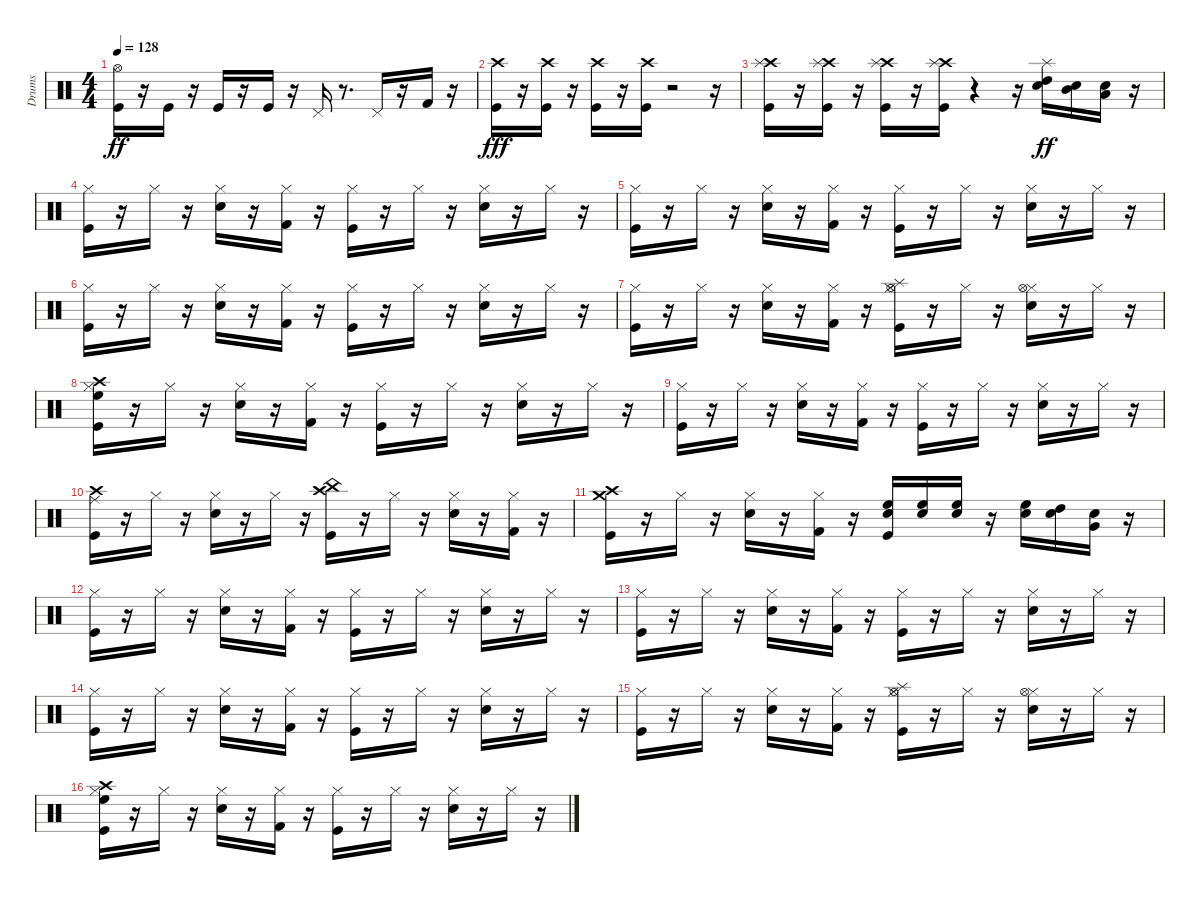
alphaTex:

\track ("Drums" "Drums") {instrument percussion}
\staff {score}
\articulation defaults
\ts (4 4)
\tempo 128
\clef neutral
\ks c
("Kick (hit)" "Hi-Hat (open)").16{dy ff} r.16 "Kick (hit)".16 r.16 "Kick (hit)".16 r.16 "Kick (hit)".16 r.16 "Pedal Hi-Hat (hit)".16 r.8{d} "Pedal Hi-Hat (hit)".16 r.16 "Kick (hit) 2".16 r.16 |
("Kick (hit)" "Crash high (hit)").16{dy fff} r.16 ("Kick (hit)" "Crash high (hit)").16 r.16 ("Kick (hit)" "Crash high (hit)").16 r.16 ("Kick (hit)" "Crash high (hit)").16 r.2 r.16 |
("Kick (hit)" "Crash high (hit)" "Splash (hit)").16 r.16 ("Kick (hit)" "Crash high (hit)" "Splash (hit)").16 r.16 ("Kick (hit)" "Crash high (hit)" "Splash (hit)").16 r.16 ("Kick (hit)" "Crash high (hit)" "Splash (hit)").16 r.4 r.16 ("Snare (hit) 2" "High Tom (hit)" "Splash (hit)").16{dy ff} ("Snare (hit) 2" "Mid Tom (hit)").16 ("Snare (hit) 2" "Low Tom (hit)").16 r.16 |
("Kick (hit)" "Hi-Hat (closed)").16 r.16 "Hi-Hat (closed)".16 r.16 ("Snare (hit) 2" "Hi-Hat (closed)").16 r.16 ("Kick (hit) 2" "Hi-Hat (closed)").16 r.16 ("Kick (hit)" "Hi-Hat (closed)").16 r.16 "Hi-Hat (closed)".16 r.16 ("Snare (hit) 2" "Hi-Hat (closed)").16 r.16 "Hi-Hat (closed)".16 r.16 |
("Kick (hit)" "Hi-Hat (closed)").16 r.16 "Hi-Hat (closed)".16 r.16 ("Snare (hit) 2" "Hi-Hat (closed)").16 r.16 ("Kick (hit) 2" "Hi-Hat (closed)").16 r.16 ("Kick (hit)" "Hi-Hat (closed)").16 r.16 "Hi-Hat (closed)".16 r.16 ("Snare (hit) 2" "Hi-Hat (closed)").16 r.16 "Hi-Hat (closed)".16 r.16 |
("Kick (hit)" "Hi-Hat (closed)").16 r.16 "Hi-Hat (closed)".16 r.16 ("Snare (hit) 2" "Hi-Hat (closed)").16 r.16 ("Kick (hit) 2" "Hi-Hat (closed)").16 r.16 ("Kick (hit)" "Hi-Hat (closed)").16 r.16 "Hi-Hat (closed)".16 r.16 ("Snare (hit) 2" "Hi-Hat (closed)").16 r.16 "Hi-Hat (closed)".16 r.16 |
("Kick (hit)" "Hi-Hat (closed)").16 r.16 "Hi-Hat (closed)".16 r.16 ("Snare (hit) 2" "Hi-Hat (closed)").16 r.16 ("Kick (hit) 2" "Hi-Hat (closed)").16 r.16 ("Kick (hit)" "Hi-Hat (closed)" "Hi-Hat (open)" "Splash (hit)").16 r.16 "Hi-Hat (closed)".16 r.16 ("Snare (hit) 2" "Hi-Hat (closed)" "Hi-Hat (open)").16 r.16 "Hi-Hat (closed)".16 r.16 |
("Kick (hit)" "Hi-Hat (closed)" "Crash high (hit)" "High Floor Tom (hit)").16 r.16 "Hi-Hat (closed)".16 r.16 ("Snare (hit) 2" "Hi-Hat (closed)").16 r.16 ("Kick (hit) 2" "Hi-Hat (closed)").16 r.16 ("Kick (hit)" "Hi-Hat (closed)").16 r.16 "Hi-Hat (closed)".16 r.16 ("Snare (hit) 2" "Hi-Hat (closed)").16 r.16 "Hi-Hat (closed)".16 r.16 |
("Kick (hit)" "Hi-Hat (closed)").16 r.16 "Hi-Hat (closed)".16 r.16 ("Snare (hit) 2" "Hi-Hat (closed)").16 r.16 ("Kick (hit) 2" "Hi-Hat (closed)").16 r.16 ("Kick (hit)" "Hi-Hat (closed)").16 r.16 "Hi-Hat (closed)".16 r.16 ("Snare (hit) 2" "Hi-Hat (closed)").16 r.16 "Hi-Hat (closed)".16 r.16 |
("Kick (hit)" "Crash high (hit)" "Ride (middle)").16 r.16 "Hi-Hat (closed)".16 r.16 ("Snare (hit) 2" "Hi-Hat (closed)").16 r.16 "Hi-Hat (closed)".16 r.16 ("Kick (hit)" "Crash high (hit)" "China (hit)").16 r.16 "Hi-Hat (closed)".16 r.16 ("Snare (hit) 2" "Hi-Hat (closed)").16 r.16 ("Kick (hit) 2" "Hi-Hat (closed)").16 r.16 |
("Kick (hit)" "Crash high (hit)" "Crash medium (hit)").16 r.16 "Hi-Hat (closed)".16 r.16 ("Snare (hit) 2" "Hi-Hat (closed)").16 r.16 ("Kick (hit) 2" "Hi-Hat (closed)").16 r.16 ("Kick (hit)" "Electric Snare (hit)" "High Floor Tom (hit)").16 ("Electric Snare (hit)" "High Floor Tom (hit)").16 ("Electric Snare (hit)" "High Floor Tom (hit)").16 r.16 ("Snare (hit) 2" "High Floor Tom (hit)").16 ("Snare (hit) 2" "High Tom (hit)").16 ("Snare (hit) 2" "Very Low Tom (hit)").16 r.16 |
("Kick (hit)" "Hi-Hat (closed)").16 r.16 "Hi-Hat (closed)".16 r.16 ("Snare (hit) 2" "Hi-Hat (closed)").16 r.16 ("Kick (hit) 2" "Hi-Hat (closed)").16 r.16 ("Kick (hit)" "Hi-Hat (closed)").16 r.16 "Hi-Hat (closed)".16 r.16 ("Snare (hit) 2" "Hi-Hat (closed)").16 r.16 "Hi-Hat (closed)".16 r.16 |
("Kick (hit)" "Hi-Hat (closed)").16 r.16 "Hi-Hat (closed)".16 r.16 ("Snare (hit) 2" "Hi-Hat (closed)").16 r.16 ("Kick (hit) 2" "Hi-Hat (closed)").16 r.16 ("Kick (hit)" "Hi-Hat (closed)").16 r.16 "Hi-Hat (closed)".16 r.16 ("Snare (hit) 2" "Hi-Hat (closed)").16 r.16 "Hi-Hat (closed)".16 r.16 |
("Kick (hit)" "Hi-Hat (closed)").16 r.16 "Hi-Hat (closed)".16 r.16 ("Snare (hit) 2" "Hi-Hat (closed)").16 r.16 ("Kick (hit) 2" "Hi-Hat (closed)").16 r.16 ("Kick (hit)" "Hi-Hat (closed)").16 r.16 "Hi-Hat (closed)".16 r.16 ("Snare (hit) 2" "Hi-Hat (closed)").16 r.16 "Hi-Hat (closed)".16 r.16 |
("Kick (hit)" "Hi-Hat (closed)").16 r.16 "Hi-Hat (closed)".16 r.16 ("Snare (hit) 2" "Hi-Hat (closed)").16 r.16 ("Kick (hit) 2" "Hi-Hat (closed)").16 r.16 ("Kick (hit)" "Hi-Hat (closed)" "Hi-Hat (open)" "Splash (hit)").16 r.16 "Hi-Hat (closed)".16 r.16 ("Snare (hit) 2" "Hi-Hat (closed)" "Hi-Hat (open)").16 r.16 "Hi-Hat (closed)".16 r.16 |
("Kick (hit)" "Hi-Hat (closed)" "Crash high (hit)" "High Floor Tom (hit)").16 r.16 "Hi-Hat (closed)".16 r.16 ("Snare (hit) 2" "Hi-Hat (closed)").16 r.16 ("Kick (hit) 2" "Hi-Hat (closed)").16 r.16 ("Kick (hit)" "Hi-Hat (closed)").16 r.16 "Hi-Hat (closed)".16 r.16 ("Snare (hit) 2" "Hi-Hat (closed)").16 r.16 "Hi-Hat (closed)".16 r.16
